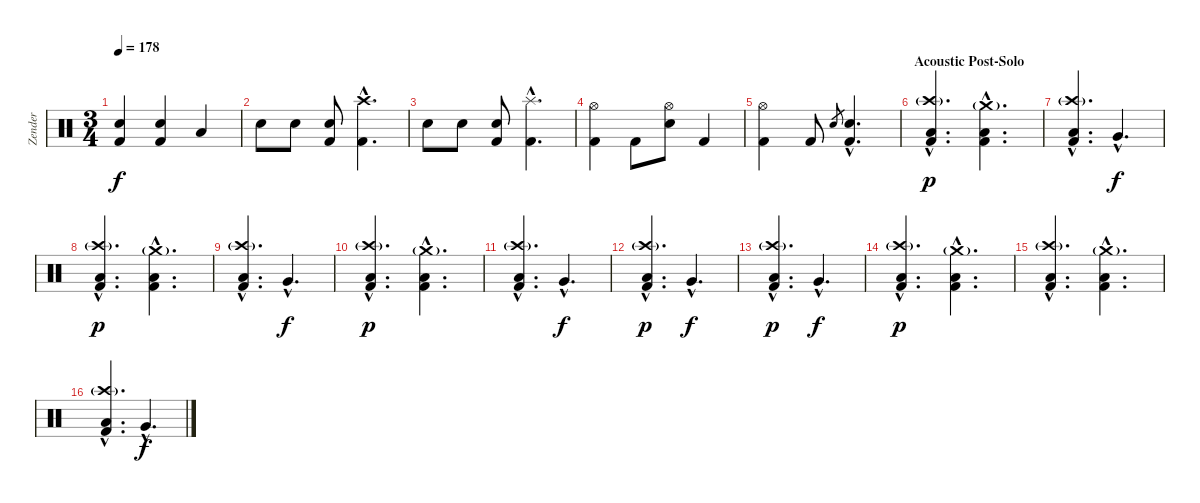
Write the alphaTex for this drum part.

\track ("Zender" "Zender") {instrument percussion}
\staff {score}
\articulation defaults
\ts (3 4)
\tempo 178
\clef neutral
\ks c
("Electric Snare (hit)" "Kick (hit) 2").4{dy f} ("Electric Snare (hit)" "Kick (hit) 2").4 "Low Tom (hit)".4 |
"Electric Snare (hit)".8 "Electric Snare (hit)".8 ("Electric Snare (hit)" "Kick (hit) 2").8 ("Crash high (hit)"{hac} "Kick (hit) 2"{hac}).4{d} |
"Electric Snare (hit)".8 "Electric Snare (hit)".8 ("Electric Snare (hit)" "Kick (hit) 2").8 ("Splash (hit)"{hac} "Kick (hit) 2"{hac}).4{d} |
("Hi-Hat (open)" "Kick (hit) 2").4 "Kick (hit) 2".8 ("Electric Snare (hit)" "Hi-Hat (open)").8 "Kick (hit) 2".4 |
("Hi-Hat (open)" "Kick (hit) 2").4 "Kick (hit) 2".8 "Electric Snare (hit)".8{gr} ("Electric Snare (hit)"{hac} "Kick (hit) 2"{hac}).4{d} |
\section ("" "Acoustic Post-Solo")
("Crash high (hit)"{g hac} "Low Floor Tom (hit)"{hac} "Kick (hit) 2"{hac}).4{d dy p} ("Crash medium (hit)"{g hac} "Low Floor Tom (hit)"{hac} "Kick (hit) 2"{hac}).4{d} |
("Crash high (hit)"{g hac} "Low Floor Tom (hit)"{hac} "Kick (hit) 2"{hac}).4{d} "Very Low Tom (hit)"{hac}.4{d dy f} |
("Crash high (hit)"{g hac} "Low Floor Tom (hit)"{hac} "Kick (hit) 2"{hac}).4{d dy p} ("Crash medium (hit)"{g hac} "Low Floor Tom (hit)"{hac} "Kick (hit) 2"{hac}).4{d} |
("Crash high (hit)"{g hac} "Low Floor Tom (hit)"{hac} "Kick (hit) 2"{hac}).4{d} "Very Low Tom (hit)"{hac}.4{d dy f} |
("Crash high (hit)"{g hac} "Low Floor Tom (hit)"{hac} "Kick (hit) 2"{hac}).4{d dy p} ("Crash medium (hit)"{g hac} "Low Floor Tom (hit)"{hac} "Kick (hit) 2"{hac}).4{d} |
("Crash high (hit)"{g hac} "Low Floor Tom (hit)"{hac} "Kick (hit) 2"{hac}).4{d} "Very Low Tom (hit)"{hac}.4{d dy f} |
("Crash high (hit)"{g hac} "Low Floor Tom (hit)"{hac} "Kick (hit) 2"{hac}).4{d dy p} "Very Low Tom (hit)"{hac}.4{d dy f} |
("Crash high (hit)"{g hac} "Low Floor Tom (hit)"{hac} "Kick (hit) 2"{hac}).4{d dy p} "Very Low Tom (hit)"{hac}.4{d dy f} |
("Crash high (hit)"{g hac} "Low Floor Tom (hit)"{hac} "Kick (hit) 2"{hac}).4{d dy p} ("Crash medium (hit)"{g hac} "Low Floor Tom (hit)"{hac} "Kick (hit) 2"{hac}).4{d} |
("Crash high (hit)"{g hac} "Low Floor Tom (hit)"{hac} "Kick (hit) 2"{hac}).4{d} ("Crash medium (hit)"{g hac} "Low Floor Tom (hit)"{hac} "Kick (hit) 2"{hac}).4{d} |
("Crash high (hit)"{g hac} "Low Floor Tom (hit)"{hac} "Kick (hit) 2"{hac}).4{d} "Very Low Tom (hit)"{hac}.4{d dy f}
